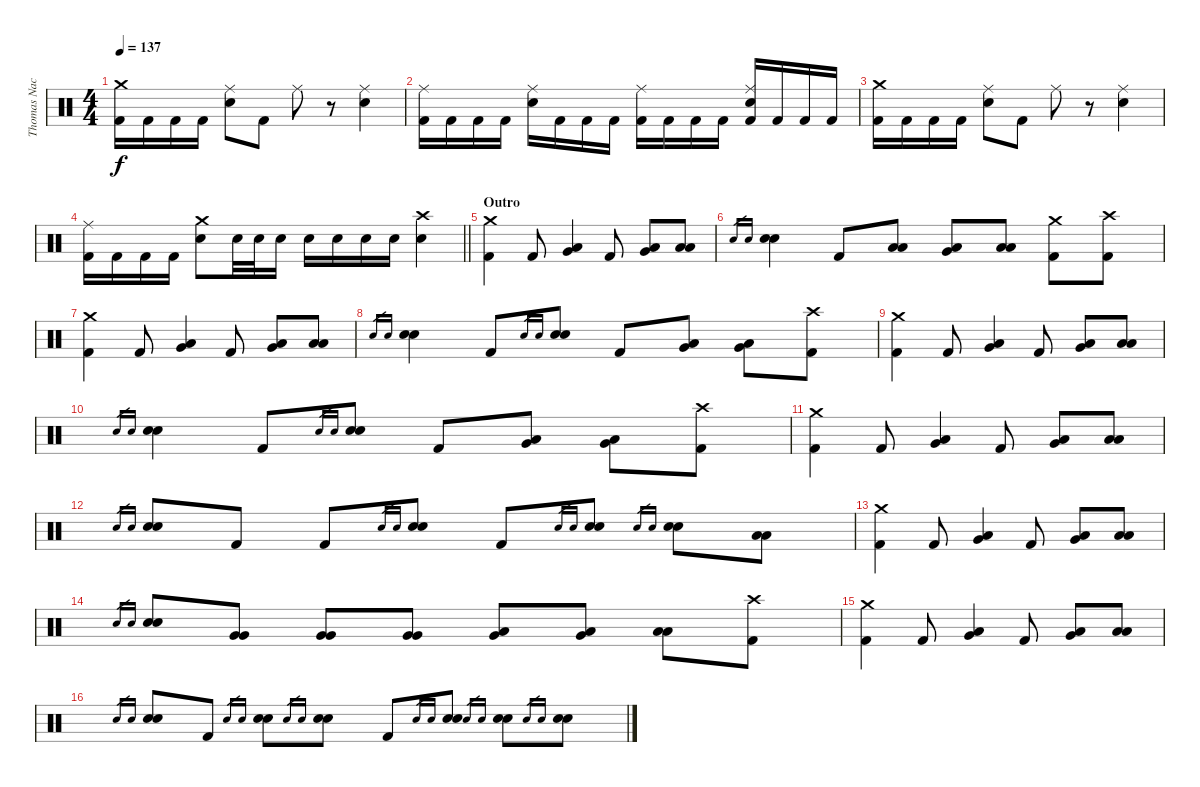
\track ("Thomas Nack" "Thomas Nac") {instrument percussion}
\staff {score}
\articulation defaults
\ts (4 4)
\tempo 137
\clef neutral
\ks c
("Crash medium (hit)" "Kick (hit) 2").16{dy f} "Kick (hit) 2".16 "Kick (hit) 2".16 "Kick (hit) 2".16 ("Ride (middle)" "Electric Snare (hit)").8 "Kick (hit) 2".8 "Ride (middle)".8 r.8 ("Ride (middle)" "Electric Snare (hit)").4 |
("Ride (middle)" "Kick (hit) 2").16 "Kick (hit) 2".16 "Kick (hit) 2".16 "Kick (hit) 2".16 ("Ride (middle)" "Electric Snare (hit)").16 "Kick (hit) 2".16 "Kick (hit) 2".16 "Kick (hit) 2".16 ("Ride (middle)" "Kick (hit) 2").16 "Kick (hit) 2".16 "Kick (hit) 2".16 "Kick (hit) 2".16 ("Ride (middle)" "Electric Snare (hit)" "Kick (hit) 2").16 "Kick (hit) 2".16 "Kick (hit) 2".16 "Kick (hit) 2".16 |
("Crash medium (hit)" "Kick (hit) 2").16 "Kick (hit) 2".16 "Kick (hit) 2".16 "Kick (hit) 2".16 ("Ride (middle)" "Electric Snare (hit)").8 "Kick (hit) 2".8 "Ride (middle)".8 r.8 ("Ride (middle)" "Electric Snare (hit)").4 |
\barLineRight lightlight
("Ride (middle)" "Kick (hit) 2").16 "Kick (hit) 2".16 "Kick (hit) 2".16 "Kick (hit) 2".16 ("Crash medium (hit)" "Electric Snare (hit)").8 "Electric Snare (hit)".32 "Electric Snare (hit)".32 "Electric Snare (hit)".16 "Electric Snare (hit)".16 "Electric Snare (hit)".16 "Electric Snare (hit)".16 "Electric Snare (hit)".16 ("Crash high (hit)" "Electric Snare (hit)").4 |
\section ("" "Outro")
("Crash medium (hit)" "Kick (hit) 2").4 "Kick (hit) 2".8 ("Very Low Tom (hit)" "Low Floor Tom (hit)").4 "Kick (hit) 2".8 ("Very Low Tom (hit)" "Low Floor Tom (hit)").8 ("Low Floor Tom (hit)" "Low Floor Tom (hit)").8 |
"Electric Snare (hit)".16{gr} "Electric Snare (hit)".16{gr} ("Electric Snare (hit)" "Electric Snare (hit)").4 "Kick (hit) 2".8 ("Low Floor Tom (hit)" "Low Floor Tom (hit)").8 ("Very Low Tom (hit)" "Low Floor Tom (hit)").8 ("Low Floor Tom (hit)" "Low Floor Tom (hit)").8 ("Crash medium (hit)" "Kick (hit) 2").8 ("Crash high (hit)" "Kick (hit) 2").8 |
("Crash medium (hit)" "Kick (hit) 2").4 "Kick (hit) 2".8 ("Very Low Tom (hit)" "Low Floor Tom (hit)").4 "Kick (hit) 2".8 ("Very Low Tom (hit)" "Low Floor Tom (hit)").8 ("Low Floor Tom (hit)" "Low Floor Tom (hit)").8 |
"Electric Snare (hit)".16{gr} "Electric Snare (hit)".16{gr} ("Electric Snare (hit)" "Electric Snare (hit)").4 "Kick (hit) 2".8 "Electric Snare (hit)".16{gr} "Electric Snare (hit)".16{gr} ("Electric Snare (hit)" "Electric Snare (hit)").8 "Kick (hit) 2".8 ("Very Low Tom (hit)" "Low Floor Tom (hit)").8 ("Very Low Tom (hit)" "Low Floor Tom (hit)").8 ("Crash high (hit)" "Kick (hit) 2").8 |
("Crash medium (hit)" "Kick (hit) 2").4 "Kick (hit) 2".8 ("Very Low Tom (hit)" "Low Floor Tom (hit)").4 "Kick (hit) 2".8 ("Very Low Tom (hit)" "Low Floor Tom (hit)").8 ("Low Floor Tom (hit)" "Low Floor Tom (hit)").8 |
"Electric Snare (hit)".16{gr} "Electric Snare (hit)".16{gr} ("Electric Snare (hit)" "Electric Snare (hit)").4 "Kick (hit) 2".8 "Electric Snare (hit)".16{gr} "Electric Snare (hit)".16{gr} ("Electric Snare (hit)" "Electric Snare (hit)").8 "Kick (hit) 2".8 ("Very Low Tom (hit)" "Low Floor Tom (hit)").8 ("Very Low Tom (hit)" "Low Floor Tom (hit)").8 ("Crash high (hit)" "Kick (hit) 2").8 |
("Crash medium (hit)" "Kick (hit) 2").4 "Kick (hit) 2".8 ("Very Low Tom (hit)" "Low Floor Tom (hit)").4 "Kick (hit) 2".8 ("Very Low Tom (hit)" "Low Floor Tom (hit)").8 ("Low Floor Tom (hit)" "Low Floor Tom (hit)").8 |
"Electric Snare (hit)".16{gr} "Electric Snare (hit)".16{gr} ("Electric Snare (hit)" "Electric Snare (hit)").8 "Kick (hit) 2".8 "Kick (hit) 2".8 "Electric Snare (hit)".16{gr} "Electric Snare (hit)".16{gr} ("Electric Snare (hit)" "Electric Snare (hit)").8 "Kick (hit) 2".8 "Electric Snare (hit)".16{gr} "Electric Snare (hit)".16{gr} ("Electric Snare (hit)" "Electric Snare (hit)").8 "Electric Snare (hit)".16{gr} "Electric Snare (hit)".16{gr} ("Electric Snare (hit)" "Electric Snare (hit)").8 ("Low Floor Tom (hit)" "Low Floor Tom (hit)").8 |
("Crash medium (hit)" "Kick (hit) 2").4 "Kick (hit) 2".8 ("Very Low Tom (hit)" "Low Floor Tom (hit)").4 "Kick (hit) 2".8 ("Very Low Tom (hit)" "Low Floor Tom (hit)").8 ("Low Floor Tom (hit)" "Low Floor Tom (hit)").8 |
"Electric Snare (hit)".16{gr} "Electric Snare (hit)".16{gr} ("Electric Snare (hit)" "Electric Snare (hit)").8 ("Very Low Tom (hit)" "Very Low Tom (hit)").8 ("Very Low Tom (hit)" "Very Low Tom (hit)").8 ("Very Low Tom (hit)" "Very Low Tom (hit)").8 ("Very Low Tom (hit)" "Low Floor Tom (hit)").8 ("Very Low Tom (hit)" "Low Floor Tom (hit)").8 ("Low Floor Tom (hit)" "Low Floor Tom (hit)").8 ("Crash high (hit)" "Kick (hit) 2").8 |
("Crash medium (hit)" "Kick (hit) 2").4 "Kick (hit) 2".8 ("Very Low Tom (hit)" "Low Floor Tom (hit)").4 "Kick (hit) 2".8 ("Very Low Tom (hit)" "Low Floor Tom (hit)").8 ("Low Floor Tom (hit)" "Low Floor Tom (hit)").8 |
"Electric Snare (hit)".16{gr} "Electric Snare (hit)".16{gr} ("Electric Snare (hit)" "Electric Snare (hit)").8 "Kick (hit) 2".8 "Electric Snare (hit)".16{gr} "Electric Snare (hit)".16{gr} ("Electric Snare (hit)" "Electric Snare (hit)").8 "Electric Snare (hit)".16{gr} "Electric Snare (hit)".16{gr} ("Electric Snare (hit)" "Electric Snare (hit)").8 "Kick (hit) 2".8 "Electric Snare (hit)".16{gr} "Electric Snare (hit)".16{gr} ("Electric Snare (hit)" "Electric Snare (hit)").8 "Electric Snare (hit)".16{gr} "Electric Snare (hit)".16{gr} ("Electric Snare (hit)" "Electric Snare (hit)").8 "Electric Snare (hit)".16{gr} "Electric Snare (hit)".16{gr} ("Electric Snare (hit)" "Electric Snare (hit)").8
